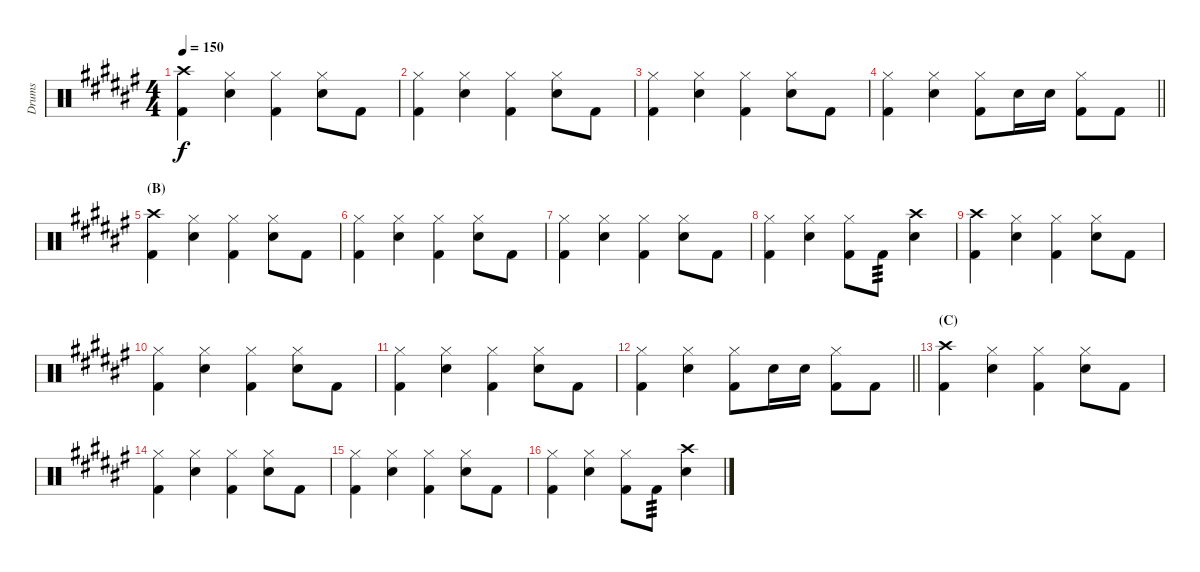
\track ("Drums" "Drums") {instrument percussion}
\staff {score}
\articulation defaults
\ts (4 4)
\tempo 150
\clef neutral
\ks f#
("Crash high (hit)" "Kick (hit) 2").4{dy f} ("Electric Snare (hit)" "Hi-Hat (closed)").4 ("Hi-Hat (closed)" "Kick (hit) 2").4 ("Electric Snare (hit)" "Hi-Hat (closed)").8 "Kick (hit) 2".8 |
("Hi-Hat (closed)" "Kick (hit) 2").4 ("Electric Snare (hit)" "Hi-Hat (closed)").4 ("Hi-Hat (closed)" "Kick (hit) 2").4 ("Electric Snare (hit)" "Hi-Hat (closed)").8 "Kick (hit) 2".8 |
("Hi-Hat (closed)" "Kick (hit) 2").4 ("Electric Snare (hit)" "Hi-Hat (closed)").4 ("Hi-Hat (closed)" "Kick (hit) 2").4 ("Electric Snare (hit)" "Hi-Hat (closed)").8 "Kick (hit) 2".8 |
\barLineRight lightlight
("Hi-Hat (closed)" "Kick (hit) 2").4 ("Electric Snare (hit)" "Hi-Hat (closed)").4 ("Hi-Hat (closed)" "Kick (hit) 2").8 "Electric Snare (hit)".16 "Electric Snare (hit)".16 ("Hi-Hat (closed)" "Kick (hit) 2").8 "Kick (hit) 2".8 |
\section ("" "(B)")
("Crash high (hit)" "Kick (hit) 2").4 ("Electric Snare (hit)" "Hi-Hat (closed)").4 ("Hi-Hat (closed)" "Kick (hit) 2").4 ("Electric Snare (hit)" "Hi-Hat (closed)").8 "Kick (hit) 2".8 |
("Hi-Hat (closed)" "Kick (hit) 2").4 ("Electric Snare (hit)" "Hi-Hat (closed)").4 ("Hi-Hat (closed)" "Kick (hit) 2").4 ("Electric Snare (hit)" "Hi-Hat (closed)").8 "Kick (hit) 2".8 |
("Hi-Hat (closed)" "Kick (hit) 2").4 ("Electric Snare (hit)" "Hi-Hat (closed)").4 ("Hi-Hat (closed)" "Kick (hit) 2").4 ("Electric Snare (hit)" "Hi-Hat (closed)").8 "Kick (hit) 2".8 |
("Hi-Hat (closed)" "Kick (hit) 2").4 ("Electric Snare (hit)" "Hi-Hat (closed)").4 ("Hi-Hat (closed)" "Kick (hit) 2").8 "Kick (hit) 2".8{tp 3} ("Crash high (hit)" "Electric Snare (hit)").4 |
("Crash high (hit)" "Kick (hit) 2").4 ("Electric Snare (hit)" "Hi-Hat (closed)").4 ("Hi-Hat (closed)" "Kick (hit) 2").4 ("Electric Snare (hit)" "Hi-Hat (closed)").8 "Kick (hit) 2".8 |
("Hi-Hat (closed)" "Kick (hit) 2").4 ("Electric Snare (hit)" "Hi-Hat (closed)").4 ("Hi-Hat (closed)" "Kick (hit) 2").4 ("Electric Snare (hit)" "Hi-Hat (closed)").8 "Kick (hit) 2".8 |
("Hi-Hat (closed)" "Kick (hit) 2").4 ("Electric Snare (hit)" "Hi-Hat (closed)").4 ("Hi-Hat (closed)" "Kick (hit) 2").4 ("Electric Snare (hit)" "Hi-Hat (closed)").8 "Kick (hit) 2".8 |
\barLineRight lightlight
("Hi-Hat (closed)" "Kick (hit) 2").4 ("Electric Snare (hit)" "Hi-Hat (closed)").4 ("Hi-Hat (closed)" "Kick (hit) 2").8 "Electric Snare (hit)".16 "Electric Snare (hit)".16 ("Hi-Hat (closed)" "Kick (hit) 2").8 "Kick (hit) 2".8 |
\section ("" "(C)")
("Crash high (hit)" "Kick (hit) 2").4 ("Electric Snare (hit)" "Hi-Hat (closed)").4 ("Hi-Hat (closed)" "Kick (hit) 2").4 ("Electric Snare (hit)" "Hi-Hat (closed)").8 "Kick (hit) 2".8 |
("Hi-Hat (closed)" "Kick (hit) 2").4 ("Electric Snare (hit)" "Hi-Hat (closed)").4 ("Hi-Hat (closed)" "Kick (hit) 2").4 ("Electric Snare (hit)" "Hi-Hat (closed)").8 "Kick (hit) 2".8 |
("Hi-Hat (closed)" "Kick (hit) 2").4 ("Electric Snare (hit)" "Hi-Hat (closed)").4 ("Hi-Hat (closed)" "Kick (hit) 2").4 ("Electric Snare (hit)" "Hi-Hat (closed)").8 "Kick (hit) 2".8 |
("Hi-Hat (closed)" "Kick (hit) 2").4 ("Electric Snare (hit)" "Hi-Hat (closed)").4 ("Hi-Hat (closed)" "Kick (hit) 2").8 "Kick (hit) 2".8{tp 3} ("Crash high (hit)" "Electric Snare (hit)").4
